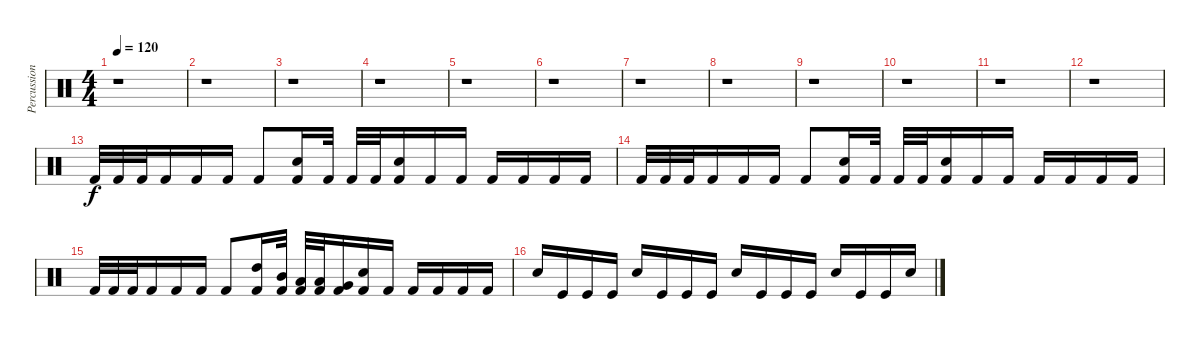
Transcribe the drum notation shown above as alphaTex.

\track ("Percussion" "Percussion") {instrument percussion}
\staff {score}
\articulation defaults
\ts (4 4)
\tempo 120
\clef neutral
\ks c
r.1{dy f} |
r.1 |
r.1 |
r.1 |
r.1 |
r.1 |
r.1 |
r.1 |
r.1 |
r.1 |
r.1 |
r.1 |
"Kick (hit) 2".32 "Kick (hit) 2".32 "Kick (hit) 2".32 "Kick (hit) 2".16 "Kick (hit) 2".16 "Kick (hit) 2".16 "Kick (hit) 2".8 ("Kick (hit) 2" "Snare (hit) 2").16 "Kick (hit) 2".32 "Kick (hit) 2".32 "Kick (hit) 2".32 ("Kick (hit) 2" "Snare (hit) 2").16 "Kick (hit) 2".16 "Kick (hit) 2".16 "Kick (hit) 2".16 "Kick (hit) 2".16 "Kick (hit) 2".16 "Kick (hit) 2".16 |
"Kick (hit) 2".32 "Kick (hit) 2".32 "Kick (hit) 2".32 "Kick (hit) 2".16 "Kick (hit) 2".16 "Kick (hit) 2".16 "Kick (hit) 2".8 ("Kick (hit) 2" "Snare (hit) 2").16 "Kick (hit) 2".32 "Kick (hit) 2".32 "Kick (hit) 2".32 ("Kick (hit) 2" "Snare (hit) 2").16 "Kick (hit) 2".16 "Kick (hit) 2".16 "Kick (hit) 2".16 "Kick (hit) 2".16 "Kick (hit) 2".16 "Kick (hit) 2".16 |
"Kick (hit) 2".32 "Kick (hit) 2".32 "Kick (hit) 2".32 "Kick (hit) 2".16 "Kick (hit) 2".16 "Kick (hit) 2".16 "Kick (hit) 2".8 ("Kick (hit) 2" "High Tom (hit)").16 ("Kick (hit) 2" "Mid Tom (hit)").32 ("Kick (hit) 2" "Low Tom (hit)").32 ("Kick (hit) 2" "Low Tom (hit)").32 ("Kick (hit) 2" "Very Low Tom (hit)").16 ("Kick (hit) 2" "Snare (hit) 2").16 "Kick (hit) 2".16 "Kick (hit) 2".16 "Kick (hit) 2".16 "Kick (hit) 2".16 "Kick (hit) 2".16 |
"Snare (hit) 2".16 "Kick (hit)".16 "Kick (hit)".16 "Kick (hit)".16 "Snare (hit) 2".16 "Kick (hit)".16 "Kick (hit)".16 "Kick (hit)".16 "Snare (hit) 2".16 "Kick (hit)".16 "Kick (hit)".16 "Kick (hit)".16 "Snare (hit) 2".16 "Kick (hit)".16 "Kick (hit)".16 "Snare (hit) 2".16
